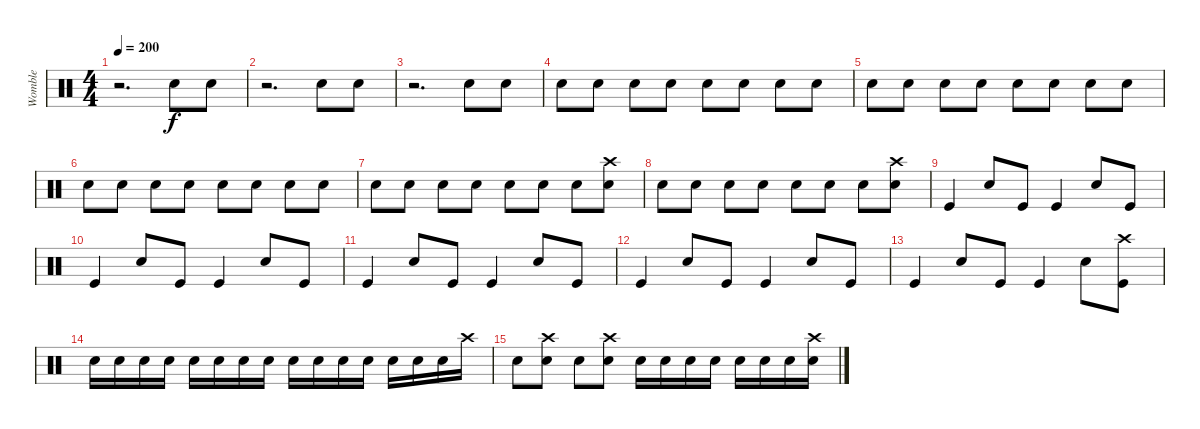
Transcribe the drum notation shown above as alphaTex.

\track ("Womble" "Womble") {instrument percussion}
\staff {score}
\articulation defaults
\ts (4 4)
\tempo 200
\clef neutral
\ks c
r.2{d dy f} "Snare (hit) 2".8 "Snare (hit) 2".8 |
r.2{d} "Snare (hit) 2".8 "Snare (hit) 2".8 |
r.2{d} "Snare (hit) 2".8 "Snare (hit) 2".8 |
"Snare (hit) 2".8 "Snare (hit) 2".8 "Snare (hit) 2".8 "Snare (hit) 2".8 "Snare (hit) 2".8 "Snare (hit) 2".8 "Snare (hit) 2".8 "Snare (hit) 2".8 |
"Snare (hit) 2".8 "Snare (hit) 2".8 "Snare (hit) 2".8 "Snare (hit) 2".8 "Snare (hit) 2".8 "Snare (hit) 2".8 "Snare (hit) 2".8 "Snare (hit) 2".8 |
"Snare (hit) 2".8 "Snare (hit) 2".8 "Snare (hit) 2".8 "Snare (hit) 2".8 "Snare (hit) 2".8 "Snare (hit) 2".8 "Snare (hit) 2".8 "Snare (hit) 2".8 |
"Snare (hit) 2".8 "Snare (hit) 2".8 "Snare (hit) 2".8 "Snare (hit) 2".8 "Snare (hit) 2".8 "Snare (hit) 2".8 "Snare (hit) 2".8 ("Crash high (hit)" "Snare (hit) 2").8 |
"Snare (hit) 2".8 "Snare (hit) 2".8 "Snare (hit) 2".8 "Snare (hit) 2".8 "Snare (hit) 2".8 "Snare (hit) 2".8 "Snare (hit) 2".8 ("Crash high (hit)" "Snare (hit) 2").8 |
"Kick (hit)".4 "Snare (hit) 2".8 "Kick (hit)".8 "Kick (hit)".4 "Electric Snare (hit)".8 "Kick (hit)".8 |
"Kick (hit)".4 "Snare (hit) 2".8 "Kick (hit)".8 "Kick (hit)".4 "Electric Snare (hit)".8 "Kick (hit)".8 |
"Kick (hit)".4 "Snare (hit) 2".8 "Kick (hit)".8 "Kick (hit)".4 "Electric Snare (hit)".8 "Kick (hit)".8 |
"Kick (hit)".4 "Snare (hit) 2".8 "Kick (hit)".8 "Kick (hit)".4 "Electric Snare (hit)".8 "Kick (hit)".8 |
"Kick (hit)".4 "Snare (hit) 2".8 "Kick (hit)".8 "Kick (hit)".4 "Electric Snare (hit)".8 ("Crash high (hit)" "Kick (hit)").8 |
"Snare (hit) 2".16 "Snare (hit) 2".16 "Snare (hit) 2".16 "Snare (hit) 2".16 "Snare (hit) 2".16 "Snare (hit) 2".16 "Snare (hit) 2".16 "Snare (hit) 2".16 "Snare (hit) 2".16 "Snare (hit) 2".16 "Snare (hit) 2".16 "Snare (hit) 2".16 "Snare (hit) 2".16 "Snare (hit) 2".16 "Snare (hit) 2".16 "Crash high (hit)".16 |
"Snare (hit) 2".8 ("Crash high (hit)" "Snare (hit) 2").8 "Snare (hit) 2".8 ("Crash high (hit)" "Snare (hit) 2").8 "Snare (hit) 2".16 "Snare (hit) 2".16 "Snare (hit) 2".16 "Snare (hit) 2".16 "Snare (hit) 2".16 "Snare (hit) 2".16 "Snare (hit) 2".16 ("Crash high (hit)" "Snare (hit) 2").16
